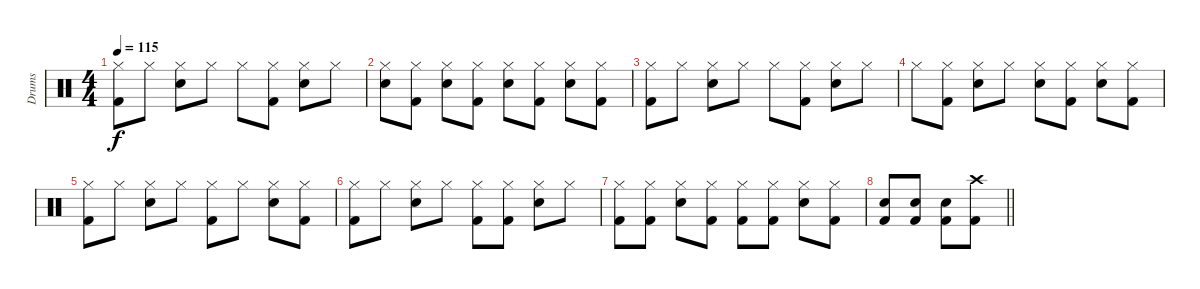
\track ("Drums" "Drums") {instrument percussion}
\staff {score}
\articulation defaults
\ts (4 4)
\tempo 115
\clef neutral
\ks c
("Hi-Hat (closed)" "Kick (hit) 2").8{dy f} "Hi-Hat (closed)".8 ("Hi-Hat (closed)" "Snare (hit) 2").8 "Hi-Hat (closed)".8 "Hi-Hat (closed)".8 ("Hi-Hat (closed)" "Kick (hit) 2").8 ("Hi-Hat (closed)" "Snare (hit) 2").8 "Hi-Hat (closed)".8 |
("Hi-Hat (closed)" "Snare (hit) 2").8 ("Hi-Hat (closed)" "Kick (hit) 2").8 ("Hi-Hat (closed)" "Snare (hit) 2").8 ("Hi-Hat (closed)" "Kick (hit) 2").8 ("Hi-Hat (closed)" "Snare (hit) 2").8 ("Hi-Hat (closed)" "Kick (hit) 2").8 ("Hi-Hat (closed)" "Snare (hit) 2").8 ("Hi-Hat (closed)" "Kick (hit) 2").8 |
("Hi-Hat (closed)" "Kick (hit) 2").8 "Hi-Hat (closed)".8 ("Hi-Hat (closed)" "Snare (hit) 2").8 "Hi-Hat (closed)".8 "Hi-Hat (closed)".8 ("Hi-Hat (closed)" "Kick (hit) 2").8 ("Hi-Hat (closed)" "Snare (hit) 2").8 "Hi-Hat (closed)".8 |
"Hi-Hat (closed)".8 ("Hi-Hat (closed)" "Kick (hit) 2").8 ("Hi-Hat (closed)" "Snare (hit) 2").8 "Hi-Hat (closed)".8 ("Hi-Hat (closed)" "Snare (hit) 2").8 ("Hi-Hat (closed)" "Kick (hit) 2").8 ("Hi-Hat (closed)" "Snare (hit) 2").8 ("Hi-Hat (closed)" "Kick (hit) 2").8 |
("Hi-Hat (closed)" "Kick (hit) 2").8 "Hi-Hat (closed)".8 ("Hi-Hat (closed)" "Snare (hit) 2").8 "Hi-Hat (closed)".8 ("Hi-Hat (closed)" "Kick (hit) 2").8 "Hi-Hat (closed)".8 ("Hi-Hat (closed)" "Snare (hit) 2").8 ("Hi-Hat (closed)" "Kick (hit) 2").8 |
("Hi-Hat (closed)" "Kick (hit) 2").8 "Hi-Hat (closed)".8 ("Hi-Hat (closed)" "Snare (hit) 2").8 "Hi-Hat (closed)".8 ("Hi-Hat (closed)" "Kick (hit) 2").8 ("Hi-Hat (closed)" "Kick (hit) 2").8 ("Hi-Hat (closed)" "Snare (hit) 2").8 "Hi-Hat (closed)".8 |
("Hi-Hat (closed)" "Kick (hit) 2").8 ("Hi-Hat (closed)" "Kick (hit) 2").8 ("Hi-Hat (closed)" "Snare (hit) 2").8 ("Hi-Hat (closed)" "Kick (hit) 2").8 ("Hi-Hat (closed)" "Kick (hit) 2").8 ("Hi-Hat (closed)" "Kick (hit) 2").8 ("Hi-Hat (closed)" "Snare (hit) 2").8 ("Hi-Hat (closed)" "Kick (hit) 2").8 |
\barLineRight lightlight
("Snare (hit) 2" "Kick (hit) 2").8 ("Snare (hit) 2" "Kick (hit) 2").8 ("Snare (hit) 2" "Kick (hit) 2").8 ("Crash high (hit)" "Kick (hit) 2").8
